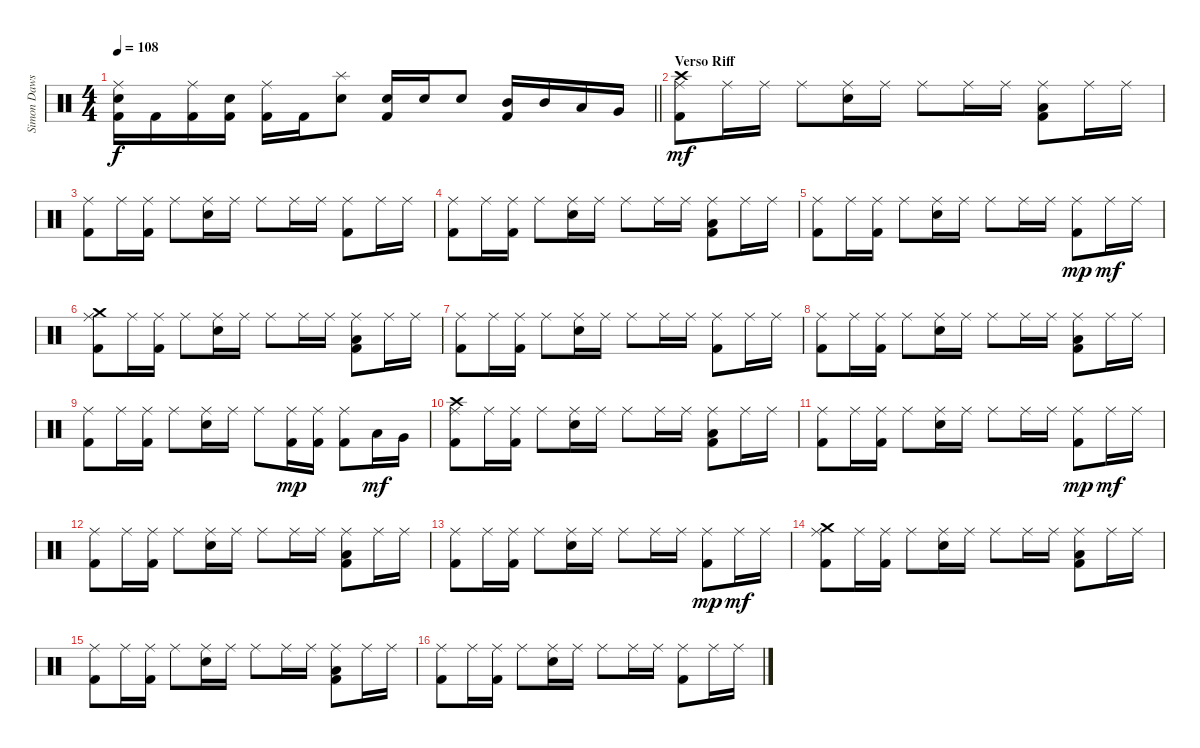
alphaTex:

\track ("Simon Dawson" "Simon Daws") {instrument percussion}
\staff {score}
\articulation defaults
\ts (4 4)
\tempo 108
\clef neutral
\barLineRight lightlight
\ks c
("Ride (middle)" "Snare (hit) 2" "Kick (hit) 2").16{dy f} "Kick (hit) 2".16 ("Ride (middle)" "Kick (hit) 2").16 ("Snare (hit) 2" "Kick (hit) 2").16 ("Ride (middle)" "Kick (hit) 2").16 "Kick (hit) 2".16 ("Snare (hit) 2" "Splash (hit)").8 ("Snare (hit) 2" "Kick (hit) 2").16 "Snare (hit) 2".16 "Snare (hit) 2".8 ("Mid Tom (hit)" "Kick (hit) 2").16 "Mid Tom (hit)".16 "Low Tom (hit)".16 "Very Low Tom (hit)".16 |
\section ("" "Verso Riff")
("Ride (middle)" "Crash high (hit)" "Kick (hit) 2").8{dy mf} "Ride (middle)".16 "Ride (middle)".16 "Ride (middle)".8 ("Ride (middle)" "Snare (hit) 2").16 "Ride (middle)".16 "Ride (middle)".8 "Ride (middle)".16 "Ride (middle)".16 ("Ride (middle)" "Low Floor Tom (hit)" "Kick (hit) 2").8 "Ride (middle)".16 "Ride (middle)".16 |
("Ride (middle)" "Kick (hit) 2").8 "Ride (middle)".16 ("Ride (middle)" "Kick (hit) 2").16 "Ride (middle)".8 ("Ride (middle)" "Snare (hit) 2").16 "Ride (middle)".16 "Ride (middle)".8 "Ride (middle)".16 "Ride (middle)".16 ("Ride (middle)" "Kick (hit) 2").8 "Ride (middle)".16 "Ride (middle)".16 |
("Ride (middle)" "Kick (hit) 2").8 "Ride (middle)".16 ("Ride (middle)" "Kick (hit) 2").16 "Ride (middle)".8 ("Ride (middle)" "Snare (hit) 2").16 "Ride (middle)".16 "Ride (middle)".8 "Ride (middle)".16 "Ride (middle)".16 ("Ride (middle)" "Low Floor Tom (hit)" "Kick (hit) 2").8 "Ride (middle)".16 "Ride (middle)".16 |
("Ride (middle)" "Kick (hit) 2").8 "Ride (middle)".16 ("Ride (middle)" "Kick (hit) 2").16 "Ride (middle)".8 ("Ride (middle)" "Snare (hit) 2").16 "Ride (middle)".16 "Ride (middle)".8 "Ride (middle)".16 "Ride (middle)".16 ("Ride (middle)" "Kick (hit) 2").8{dy mp} "Ride (middle)".16{dy mf} "Ride (middle)".16 |
("Ride (middle)" "Crash medium (hit)" "Kick (hit) 2").8 "Ride (middle)".16 ("Ride (middle)" "Kick (hit) 2").16 "Ride (middle)".8 ("Ride (middle)" "Snare (hit) 2").16 "Ride (middle)".16 "Ride (middle)".8 "Ride (middle)".16 "Ride (middle)".16 ("Ride (middle)" "Low Floor Tom (hit)" "Kick (hit) 2").8 "Ride (middle)".16 "Ride (middle)".16 |
("Ride (middle)" "Kick (hit) 2").8 "Ride (middle)".16 ("Ride (middle)" "Kick (hit) 2").16 "Ride (middle)".8 ("Ride (middle)" "Snare (hit) 2").16 "Ride (middle)".16 "Ride (middle)".8 "Ride (middle)".16 "Ride (middle)".16 ("Ride (middle)" "Kick (hit) 2").8 "Ride (middle)".16 "Ride (middle)".16 |
("Ride (middle)" "Kick (hit) 2").8 "Ride (middle)".16 ("Ride (middle)" "Kick (hit) 2").16 "Ride (middle)".8 ("Ride (middle)" "Snare (hit) 2").16 "Ride (middle)".16 "Ride (middle)".8 "Ride (middle)".16 "Ride (middle)".16 ("Ride (middle)" "Low Floor Tom (hit)" "Kick (hit) 2").8 "Ride (middle)".16 "Ride (middle)".16 |
("Ride (middle)" "Kick (hit) 2").8 "Ride (middle)".16 ("Ride (middle)" "Kick (hit) 2").16 "Ride (middle)".8 ("Ride (middle)" "Snare (hit) 2").16 "Ride (middle)".16 "Ride (middle)".8 ("Ride (middle)" "Kick (hit) 2").16{dy mp} ("Ride (middle)" "Kick (hit) 2").16 ("Ride (middle)" "Kick (hit) 2").8 "Low Tom (hit)".16{dy mf} "Very Low Tom (hit)".16 |
("Ride (middle)" "Crash high (hit)" "Kick (hit) 2").8 "Ride (middle)".16 ("Ride (middle)" "Kick (hit) 2").16 "Ride (middle)".8 ("Ride (middle)" "Snare (hit) 2").16 "Ride (middle)".16 "Ride (middle)".8 "Ride (middle)".16 "Ride (middle)".16 ("Ride (middle)" "Low Floor Tom (hit)" "Kick (hit) 2").8 "Ride (middle)".16 "Ride (middle)".16 |
("Ride (middle)" "Kick (hit) 2").8 "Ride (middle)".16 ("Ride (middle)" "Kick (hit) 2").16 "Ride (middle)".8 ("Ride (middle)" "Snare (hit) 2").16 "Ride (middle)".16 "Ride (middle)".8 "Ride (middle)".16 "Ride (middle)".16 ("Ride (middle)" "Kick (hit) 2").8{dy mp} "Ride (middle)".16{dy mf} "Ride (middle)".16 |
("Ride (middle)" "Kick (hit) 2").8 "Ride (middle)".16 ("Ride (middle)" "Kick (hit) 2").16 "Ride (middle)".8 ("Ride (middle)" "Snare (hit) 2").16 "Ride (middle)".16 "Ride (middle)".8 "Ride (middle)".16 "Ride (middle)".16 ("Ride (middle)" "Low Floor Tom (hit)" "Kick (hit) 2").8 "Ride (middle)".16 "Ride (middle)".16 |
("Ride (middle)" "Kick (hit) 2").8 "Ride (middle)".16 ("Ride (middle)" "Kick (hit) 2").16 "Ride (middle)".8 ("Ride (middle)" "Snare (hit) 2").16 "Ride (middle)".16 "Ride (middle)".8 "Ride (middle)".16 "Ride (middle)".16 ("Ride (middle)" "Kick (hit) 2").8{dy mp} "Ride (middle)".16{dy mf} "Ride (middle)".16 |
("Ride (middle)" "Crash medium (hit)" "Kick (hit) 2").8 "Ride (middle)".16 ("Ride (middle)" "Kick (hit) 2").16 "Ride (middle)".8 ("Ride (middle)" "Snare (hit) 2").16 "Ride (middle)".16 "Ride (middle)".8 "Ride (middle)".16 "Ride (middle)".16 ("Ride (middle)" "Low Floor Tom (hit)" "Kick (hit) 2").8 "Ride (middle)".16 "Ride (middle)".16 |
("Ride (middle)" "Kick (hit) 2").8 "Ride (middle)".16 ("Ride (middle)" "Kick (hit) 2").16 "Ride (middle)".8 ("Ride (middle)" "Snare (hit) 2").16 "Ride (middle)".16 "Ride (middle)".8 "Ride (middle)".16 "Ride (middle)".16 ("Ride (middle)" "Low Floor Tom (hit)" "Kick (hit) 2").8 "Ride (middle)".16 "Ride (middle)".16 |
("Ride (middle)" "Kick (hit) 2").8 "Ride (middle)".16 ("Ride (middle)" "Kick (hit) 2").16 "Ride (middle)".8 ("Ride (middle)" "Snare (hit) 2").16 "Ride (middle)".16 "Ride (middle)".8 "Ride (middle)".16 "Ride (middle)".16 ("Ride (middle)" "Kick (hit) 2").8 "Ride (middle)".16 "Ride (middle)".16
